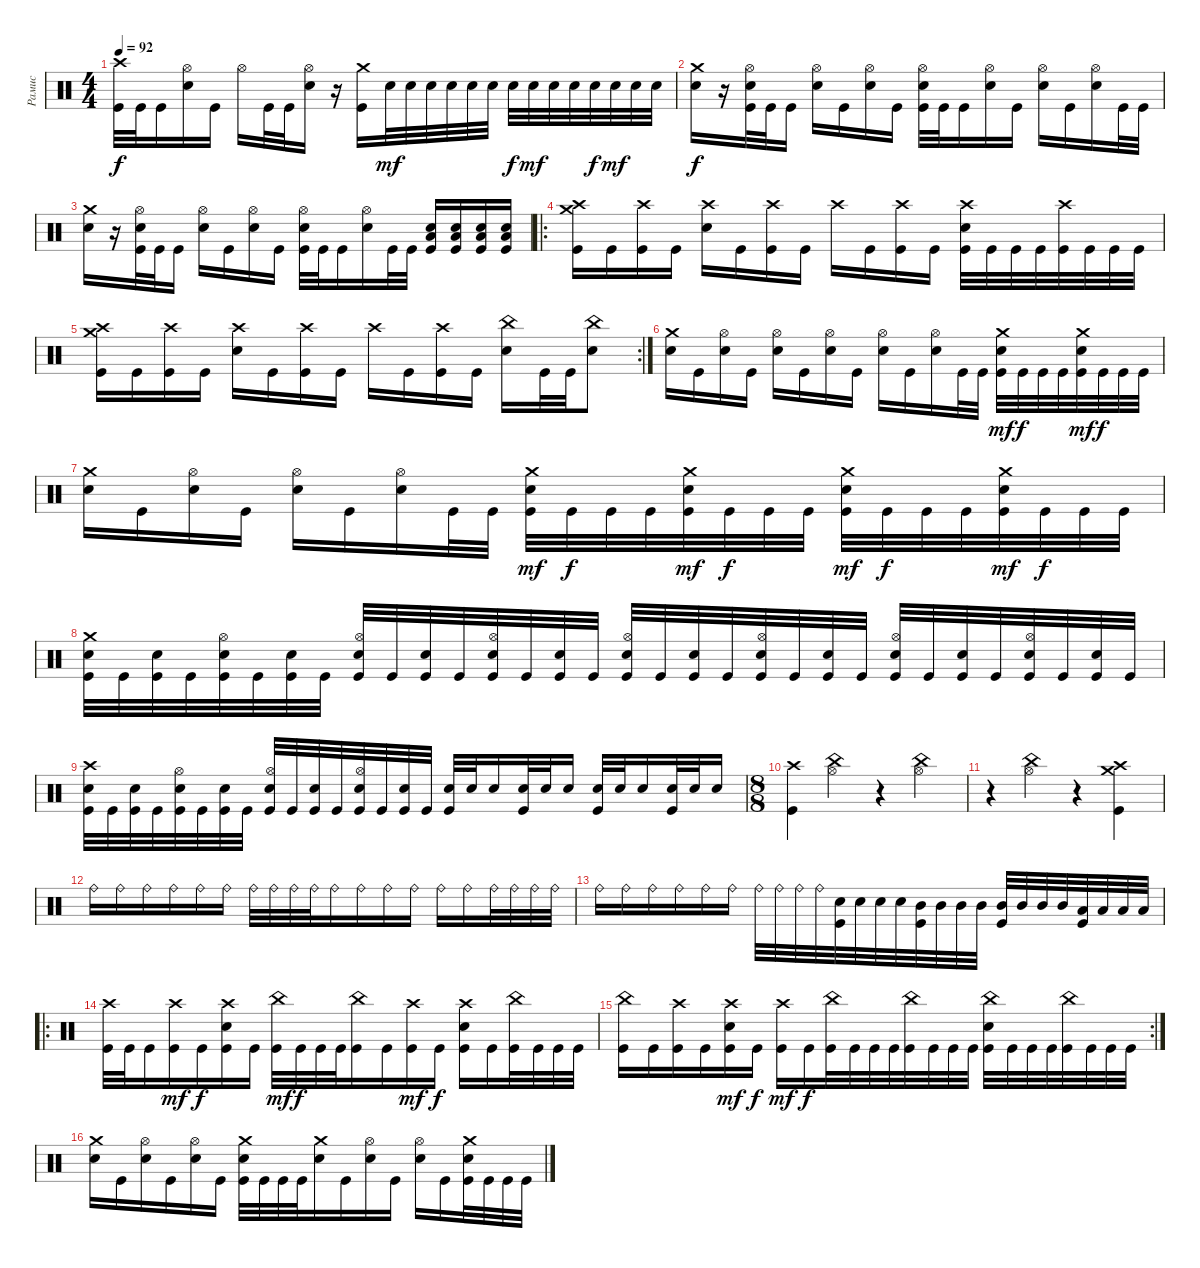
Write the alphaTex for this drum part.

\track ("Рамис" "Рамис") {instrument percussion}
\staff {score}
\articulation defaults
\ts (4 4)
\tempo 92
\clef neutral
\ks c
("Crash high (hit)" "Kick (hit)").32{dy f} "Kick (hit)".32 "Kick (hit)".16 ("Hi-Hat (open)" "Electric Snare (hit)").16 "Kick (hit)".16 "Hi-Hat (open)".16 "Kick (hit)".32 "Kick (hit)".32 ("Hi-Hat (open)" "Electric Snare (hit)").16 r.16 ("Crash medium (hit)" "Kick (hit)").16 "Electric Snare (hit)".32{dy mf} "Electric Snare (hit)".32 "Electric Snare (hit)".32 "Electric Snare (hit)".32 "Electric Snare (hit)".32 "Electric Snare (hit)".32 "Electric Snare (hit)".32{dy f} "Electric Snare (hit)".32{dy mf} "Electric Snare (hit)".32 "Electric Snare (hit)".32 "Electric Snare (hit)".32{dy f} "Electric Snare (hit)".32{dy mf} "Electric Snare (hit)".32 "Electric Snare (hit)".32 |
("Crash medium (hit)" "Electric Snare (hit)").16{dy f} r.16 ("Hi-Hat (open)" "Electric Snare (hit)" "Kick (hit)").32 "Kick (hit)".32 "Kick (hit)".16 ("Hi-Hat (open)" "Electric Snare (hit)").16 "Kick (hit)".16 ("Hi-Hat (open)" "Electric Snare (hit)").16 "Kick (hit)".16 ("Hi-Hat (open)" "Electric Snare (hit)" "Kick (hit)").32 "Kick (hit)".32 "Kick (hit)".16 ("Hi-Hat (open)" "Electric Snare (hit)").16 "Kick (hit)".16 ("Hi-Hat (open)" "Electric Snare (hit)").16 "Kick (hit)".16 ("Hi-Hat (open)" "Electric Snare (hit)").16 "Kick (hit)".32 "Kick (hit)".32 |
("Crash medium (hit)" "Electric Snare (hit)").16 r.16 ("Hi-Hat (open)" "Electric Snare (hit)" "Kick (hit)").32 "Kick (hit)".32 "Kick (hit)".16 ("Hi-Hat (open)" "Electric Snare (hit)").16 "Kick (hit)".16 ("Hi-Hat (open)" "Electric Snare (hit)").16 "Kick (hit)".16 ("Hi-Hat (open)" "Electric Snare (hit)" "Kick (hit)").32 "Kick (hit)".32 "Kick (hit)".16 ("Hi-Hat (open)" "Electric Snare (hit)").16 "Kick (hit)".32 "Kick (hit)".32 ("Electric Snare (hit)" "Low Floor Tom (hit)" "Kick (hit)").16 ("Electric Snare (hit)" "Low Floor Tom (hit)" "Kick (hit)").16 ("Electric Snare (hit)" "Low Floor Tom (hit)" "Kick (hit)").16 ("Electric Snare (hit)" "Low Floor Tom (hit)" "Kick (hit)").16 |
\ro
("Crash high (hit)" "Crash medium (hit)" "Kick (hit)").16 "Kick (hit)".16 ("Crash high (hit)" "Kick (hit)").16 "Kick (hit)".16 ("Crash high (hit)" "Electric Snare (hit)").16 "Kick (hit)".16 ("Crash high (hit)" "Kick (hit)").16 "Kick (hit)".16 "Crash high (hit)".16 "Kick (hit)".16 ("Crash high (hit)" "Kick (hit)").16 "Kick (hit)".16 ("Crash high (hit)" "Electric Snare (hit)" "Kick (hit)").32 "Kick (hit)".32 "Kick (hit)".32 "Kick (hit)".32 ("Crash high (hit)" "Kick (hit)").32 "Kick (hit)".32 "Kick (hit)".32 "Kick (hit)".32 |
\rc 2
("Crash medium (hit)" "Crash high (hit)" "Kick (hit)").16 "Kick (hit)".16 ("Crash high (hit)" "Kick (hit)").16 "Kick (hit)".16 ("Crash high (hit)" "Electric Snare (hit)").16 "Kick (hit)".16 ("Crash high (hit)" "Kick (hit)").16 "Kick (hit)".16 "Crash high (hit)".16 "Kick (hit)".16 ("Crash high (hit)" "Kick (hit)").16 "Kick (hit)".16 ("China (hit)" "Electric Snare (hit)").16 "Kick (hit)".32 "Kick (hit)".32 ("China (hit)" "Electric Snare (hit)").8 |
("Crash medium (hit)" "Electric Snare (hit)").16 "Kick (hit)".16 ("Hi-Hat (open)" "Electric Snare (hit)").16 "Kick (hit)".16 ("Hi-Hat (open)" "Electric Snare (hit)").16 "Kick (hit)".16 ("Hi-Hat (open)" "Electric Snare (hit)").16 "Kick (hit)".16 ("Hi-Hat (open)" "Electric Snare (hit)").16 "Kick (hit)".16 ("Hi-Hat (open)" "Electric Snare (hit)").16 "Kick (hit)".32 "Kick (hit)".32 ("Crash medium (hit)" "Electric Snare (hit)" "Kick (hit)").32{dy mf} "Kick (hit)".32{dy f} "Kick (hit)".32 "Kick (hit)".32 ("Crash medium (hit)" "Electric Snare (hit)" "Kick (hit)").32{dy mf} "Kick (hit)".32{dy f} "Kick (hit)".32 "Kick (hit)".32 |
("Crash medium (hit)" "Electric Snare (hit)").16 "Kick (hit)".16 ("Hi-Hat (open)" "Electric Snare (hit)").16 "Kick (hit)".16 ("Hi-Hat (open)" "Electric Snare (hit)").16 "Kick (hit)".16 ("Hi-Hat (open)" "Electric Snare (hit)").16 "Kick (hit)".32 "Kick (hit)".32 ("Crash medium (hit)" "Electric Snare (hit)" "Kick (hit)").32{dy mf} "Kick (hit)".32{dy f} "Kick (hit)".32 "Kick (hit)".32 ("Crash medium (hit)" "Electric Snare (hit)" "Kick (hit)").32{dy mf} "Kick (hit)".32{dy f} "Kick (hit)".32 "Kick (hit)".32 ("Crash medium (hit)" "Electric Snare (hit)" "Kick (hit)").32{dy mf} "Kick (hit)".32{dy f} "Kick (hit)".32 "Kick (hit)".32 ("Crash medium (hit)" "Electric Snare (hit)" "Kick (hit)").32{dy mf} "Kick (hit)".32{dy f} "Kick (hit)".32 "Kick (hit)".32 |
("Crash medium (hit)" "Electric Snare (hit)" "Kick (hit)").32 "Kick (hit)".32 ("Electric Snare (hit)" "Kick (hit)").32 "Kick (hit)".32 ("Hi-Hat (open)" "Electric Snare (hit)" "Kick (hit)").32 "Kick (hit)".32 ("Electric Snare (hit)" "Kick (hit)").32 "Kick (hit)".32 ("Hi-Hat (open)" "Electric Snare (hit)" "Kick (hit)").32 "Kick (hit)".32 ("Electric Snare (hit)" "Kick (hit)").32 "Kick (hit)".32 ("Hi-Hat (open)" "Electric Snare (hit)" "Kick (hit)").32 "Kick (hit)".32 ("Electric Snare (hit)" "Kick (hit)").32 "Kick (hit)".32 ("Hi-Hat (open)" "Electric Snare (hit)" "Kick (hit)").32 "Kick (hit)".32 ("Electric Snare (hit)" "Kick (hit)").32 "Kick (hit)".32 ("Hi-Hat (open)" "Electric Snare (hit)" "Kick (hit)").32 "Kick (hit)".32 ("Electric Snare (hit)" "Kick (hit)").32 "Kick (hit)".32 ("Hi-Hat (open)" "Electric Snare (hit)" "Kick (hit)").32 "Kick (hit)".32 ("Electric Snare (hit)" "Kick (hit)").32 "Kick (hit)".32 ("Hi-Hat (open)" "Electric Snare (hit)" "Kick (hit)").32 "Kick (hit)".32 ("Electric Snare (hit)" "Kick (hit)").32 "Kick (hit)".32 |
("Crash high (hit)" "Electric Snare (hit)" "Kick (hit)").32 "Kick (hit)".32 ("Electric Snare (hit)" "Kick (hit)").32 "Kick (hit)".32 ("Hi-Hat (open)" "Electric Snare (hit)" "Kick (hit)").32 "Kick (hit)".32 ("Electric Snare (hit)" "Kick (hit)").32 "Kick (hit)".32 ("Hi-Hat (open)" "Electric Snare (hit)" "Kick (hit)").32 "Kick (hit)".32 ("Electric Snare (hit)" "Kick (hit)").32 "Kick (hit)".32 ("Hi-Hat (open)" "Electric Snare (hit)" "Kick (hit)").32 "Kick (hit)".32 ("Electric Snare (hit)" "Kick (hit)").32 "Kick (hit)".32 ("Kick (hit)" "Electric Snare (hit)").32 "Electric Snare (hit)".32 "Electric Snare (hit)".16 ("Kick (hit)" "Electric Snare (hit)").32 "Electric Snare (hit)".32 "Electric Snare (hit)".16 ("Kick (hit)" "Electric Snare (hit)").32 "Electric Snare (hit)".32 "Electric Snare (hit)".16 ("Kick (hit)" "Electric Snare (hit)").32 "Electric Snare (hit)".32 "Electric Snare (hit)".16 |
\ts (8 8)
("Crash high (hit)" "Kick (hit)").4 ("Hi-Hat (open)" "China (hit)").4 r.4 ("Hi-Hat (open)" "China (hit)").4 |
r.4 ("Hi-Hat (open)" "China (hit)").4 r.4 ("Crash medium (hit)" "Crash high (hit)" "Kick (hit)").4 |
"Ride (bell)".16 "Ride (bell)".16 "Ride (bell)".16 "Ride (bell)".16 "Ride (bell)".16 "Ride (bell)".16 "Ride (bell)".32 "Ride (bell)".32 "Ride (bell)".32 "Ride (bell)".32 "Ride (bell)".16 "Ride (bell)".16 "Ride (bell)".16 "Ride (bell)".16 "Ride (bell)".16 "Ride (bell)".16 "Ride (bell)".32 "Ride (bell)".32 "Ride (bell)".32 "Ride (bell)".32 |
"Ride (bell)".16 "Ride (bell)".16 "Ride (bell)".16 "Ride (bell)".16 "Ride (bell)".16 "Ride (bell)".16 "Ride (bell)".32 "Ride (bell)".32 "Ride (bell)".32 "Ride (bell)".32 ("Electric Snare (hit)" "Kick (hit)").32 "Electric Snare (hit)".32 "Electric Snare (hit)".32 "Electric Snare (hit)".32 ("Mid Tom (hit)" "Kick (hit)").32 "Mid Tom (hit)".32 "Mid Tom (hit)".32 "Mid Tom (hit)".32 ("Mid Tom (hit)" "Kick (hit)").32 "Mid Tom (hit)".32 "Mid Tom (hit)".32 "Mid Tom (hit)".32 ("Low Tom (hit)" "Kick (hit)").32 "Low Tom (hit)".32 "Low Tom (hit)".32 "Low Tom (hit)".32 |
\ro
("Crash high (hit)" "Kick (hit)").32 "Kick (hit)".32 "Kick (hit)".16 ("Crash high (hit)" "Kick (hit)").16{dy mf} "Kick (hit)".16{dy f} ("Crash high (hit)" "Kick (hit)" "Electric Snare (hit)").16 "Kick (hit)".16 ("China (hit)" "Kick (hit)").32{dy mf} "Kick (hit)".32{dy f} "Kick (hit)".32 "Kick (hit)".32 ("China (hit)" "Kick (hit)").16 "Kick (hit)".16 ("Crash high (hit)" "Kick (hit)").16{dy mf} "Kick (hit)".16{dy f} ("Crash high (hit)" "Kick (hit)" "Electric Snare (hit)").16 "Kick (hit)".16 ("China (hit)" "Kick (hit)").32 "Kick (hit)".32 "Kick (hit)".32 "Kick (hit)".32 |
\rc 2
("China (hit)" "Kick (hit)").16 "Kick (hit)".16 ("Crash high (hit)" "Kick (hit)").16 "Kick (hit)".16 ("Crash high (hit)" "Kick (hit)" "Electric Snare (hit)").16{dy mf} "Kick (hit)".16{dy f} ("Crash high (hit)" "Kick (hit)").16{dy mf} "Kick (hit)".16{dy f} ("China (hit)" "Kick (hit)").32 "Kick (hit)".32 "Kick (hit)".32 "Kick (hit)".32 ("China (hit)" "Kick (hit)").32 "Kick (hit)".32 "Kick (hit)".32 "Kick (hit)".32 ("China (hit)" "Kick (hit)" "Electric Snare (hit)").32 "Kick (hit)".32 "Kick (hit)".32 "Kick (hit)".32 ("China (hit)" "Kick (hit)").32 "Kick (hit)".32 "Kick (hit)".32 "Kick (hit)".32 |
("Crash medium (hit)" "Electric Snare (hit)").16 "Kick (hit)".16 ("Hi-Hat (open)" "Electric Snare (hit)").16 "Kick (hit)".16 ("Hi-Hat (open)" "Electric Snare (hit)").16 "Kick (hit)".16 ("Crash medium (hit)" "Kick (hit)" "Electric Snare (hit)").32 "Kick (hit)".32 "Kick (hit)".32 "Kick (hit)".32 ("Crash medium (hit)" "Electric Snare (hit)").16 "Kick (hit)".16 ("Hi-Hat (open)" "Electric Snare (hit)").16 "Kick (hit)".16 ("Hi-Hat (open)" "Electric Snare (hit)").16 "Kick (hit)".16 ("Crash medium (hit)" "Kick (hit)" "Electric Snare (hit)").32 "Kick (hit)".32 "Kick (hit)".32 "Kick (hit)".32
